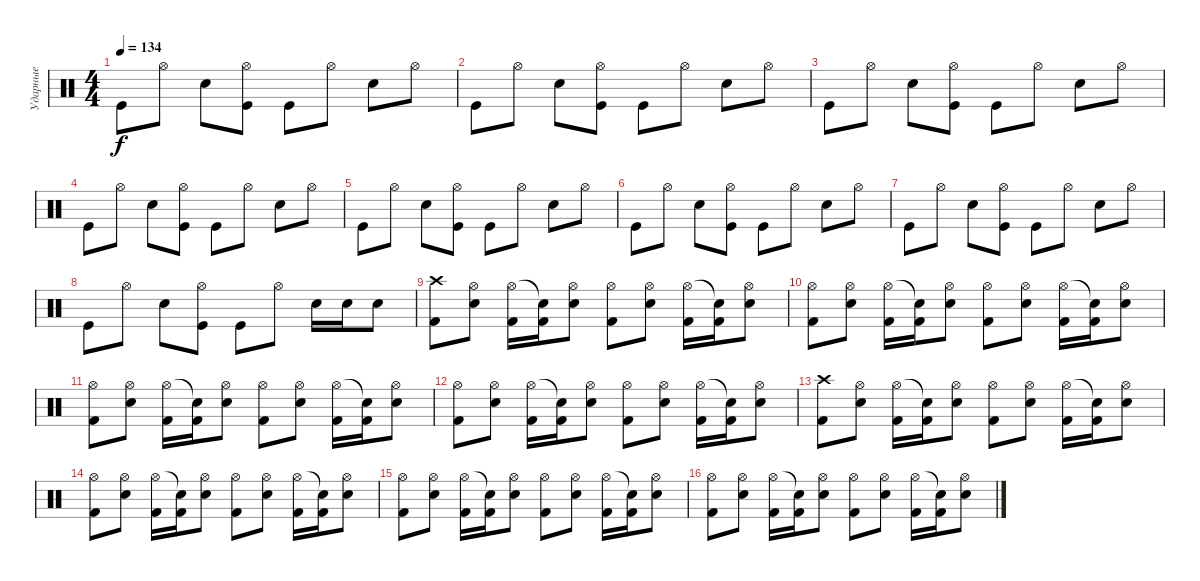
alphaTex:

\track ("Ударные" "Ударные") {instrument percussion}
\staff {score}
\articulation defaults
\ts (4 4)
\tempo 134
\clef neutral
\ks c "Kick (hit)".8{dy f} "Hi-Hat (open)".8 "Snare (hit) 2".8
("Hi-Hat (open)" "Kick (hit)").8 "Kick (hit)".8 "Hi-Hat (open)".8 "Snare (hit) 2".8 "Hi-Hat (open)".8 |
"Kick (hit)".8 "Hi-Hat (open)".8 "Snare (hit) 2".8 ("Hi-Hat (open)" "Kick (hit)").8 "Kick (hit)".8 "Hi-Hat (open)".8 "Snare (hit) 2".8 "Hi-Hat (open)".8 |
"Kick (hit)".8 "Hi-Hat (open)".8 "Snare (hit) 2".8 ("Hi-Hat (open)" "Kick (hit)").8 "Kick (hit)".8 "Hi-Hat (open)".8 "Snare (hit) 2".8 "Hi-Hat (open)".8 |
"Kick (hit)".8 "Hi-Hat (open)".8 "Snare (hit) 2".8 ("Hi-Hat (open)" "Kick (hit)").8 "Kick (hit)".8 "Hi-Hat (open)".8 "Snare (hit) 2".8 "Hi-Hat (open)".8 |
"Kick (hit)".8 "Hi-Hat (open)".8 "Snare (hit) 2".8 ("Hi-Hat (open)" "Kick (hit)").8 "Kick (hit)".8 "Hi-Hat (open)".8 "Snare (hit) 2".8 "Hi-Hat (open)".8 |
"Kick (hit)".8 "Hi-Hat (open)".8 "Snare (hit) 2".8 ("Hi-Hat (open)" "Kick (hit)").8 "Kick (hit)".8 "Hi-Hat (open)".8 "Snare (hit) 2".8 "Hi-Hat (open)".8 |
"Kick (hit)".8 "Hi-Hat (open)".8 "Snare (hit) 2".8 ("Hi-Hat (open)" "Kick (hit)").8 "Kick (hit)".8 "Hi-Hat (open)".8 "Snare (hit) 2".8 "Hi-Hat (open)".8 |
"Kick (hit)".8 "Hi-Hat (open)".8 "Snare (hit) 2".8 ("Hi-Hat (open)" "Kick (hit)").8 "Kick (hit)".8 "Hi-Hat (open)".8 "Snare (hit) 2".16 "Snare (hit) 2".16 "Snare (hit) 2".8 |
("Crash high (hit)" "Kick (hit) 2").8 ("Hi-Hat (open)" "Snare (hit) 2").8 ("Hi-Hat (open)" "Kick (hit) 2").16 ("Snare (hit)"{t} "Kick (hit) 2").16 ("Hi-Hat (open)" "Snare (hit) 2").8 ("Hi-Hat (open)" "Kick (hit) 2").8 ("Hi-Hat (open)" "Snare (hit) 2").8 ("Hi-Hat (open)" "Kick (hit) 2").16 ("Snare (hit)"{t} "Kick (hit) 2").16 ("Hi-Hat (open)" "Snare (hit) 2").8 |
("Hi-Hat (open)" "Kick (hit) 2").8 ("Hi-Hat (open)" "Snare (hit) 2").8 ("Hi-Hat (open)" "Kick (hit) 2").16 ("Snare (hit)"{t} "Kick (hit) 2").16 ("Hi-Hat (open)" "Snare (hit) 2").8 ("Hi-Hat (open)" "Kick (hit) 2").8 ("Hi-Hat (open)" "Snare (hit) 2").8 ("Hi-Hat (open)" "Kick (hit) 2").16 ("Snare (hit)"{t} "Kick (hit) 2").16 ("Hi-Hat (open)" "Snare (hit) 2").8 |
("Hi-Hat (open)" "Kick (hit) 2").8 ("Hi-Hat (open)" "Snare (hit) 2").8 ("Hi-Hat (open)" "Kick (hit) 2").16 ("Snare (hit)"{t} "Kick (hit) 2").16 ("Hi-Hat (open)" "Snare (hit) 2").8 ("Hi-Hat (open)" "Kick (hit) 2").8 ("Hi-Hat (open)" "Snare (hit) 2").8 ("Hi-Hat (open)" "Kick (hit) 2").16 ("Snare (hit)"{t} "Kick (hit) 2").16 ("Hi-Hat (open)" "Snare (hit) 2").8 |
("Hi-Hat (open)" "Kick (hit) 2").8 ("Hi-Hat (open)" "Snare (hit) 2").8 ("Hi-Hat (open)" "Kick (hit) 2").16 ("Snare (hit)"{t} "Kick (hit) 2").16 ("Hi-Hat (open)" "Snare (hit) 2").8 ("Hi-Hat (open)" "Kick (hit) 2").8 ("Hi-Hat (open)" "Snare (hit) 2").8 ("Hi-Hat (open)" "Kick (hit) 2").16 ("Snare (hit)"{t} "Kick (hit) 2").16 ("Hi-Hat (open)" "Snare (hit) 2").8 |
("Crash high (hit)" "Kick (hit) 2").8 ("Hi-Hat (open)" "Snare (hit) 2").8 ("Hi-Hat (open)" "Kick (hit) 2").16 ("Snare (hit)"{t} "Kick (hit) 2").16 ("Hi-Hat (open)" "Snare (hit) 2").8 ("Hi-Hat (open)" "Kick (hit) 2").8 ("Hi-Hat (open)" "Snare (hit) 2").8 ("Hi-Hat (open)" "Kick (hit) 2").16 ("Snare (hit)"{t} "Kick (hit) 2").16 ("Hi-Hat (open)" "Snare (hit) 2").8 |
("Hi-Hat (open)" "Kick (hit) 2").8 ("Hi-Hat (open)" "Snare (hit) 2").8 ("Hi-Hat (open)" "Kick (hit) 2").16 ("Snare (hit)"{t} "Kick (hit) 2").16 ("Hi-Hat (open)" "Snare (hit) 2").8 ("Hi-Hat (open)" "Kick (hit) 2").8 ("Hi-Hat (open)" "Snare (hit) 2").8 ("Hi-Hat (open)" "Kick (hit) 2").16 ("Snare (hit)"{t} "Kick (hit) 2").16 ("Hi-Hat (open)" "Snare (hit) 2").8 |
("Hi-Hat (open)" "Kick (hit) 2").8 ("Hi-Hat (open)" "Snare (hit) 2").8 ("Hi-Hat (open)" "Kick (hit) 2").16 ("Snare (hit)"{t} "Kick (hit) 2").16 ("Hi-Hat (open)" "Snare (hit) 2").8 ("Hi-Hat (open)" "Kick (hit) 2").8 ("Hi-Hat (open)" "Snare (hit) 2").8 ("Hi-Hat (open)" "Kick (hit) 2").16 ("Snare (hit)"{t} "Kick (hit) 2").16 ("Hi-Hat (open)" "Snare (hit) 2").8 |
("Hi-Hat (open)" "Kick (hit) 2").8 ("Hi-Hat (open)" "Snare (hit) 2").8 ("Hi-Hat (open)" "Kick (hit) 2").16 ("Snare (hit)"{t} "Kick (hit) 2").16 ("Hi-Hat (open)" "Snare (hit) 2").8 ("Hi-Hat (open)" "Kick (hit) 2").8 ("Hi-Hat (open)" "Snare (hit) 2").8 ("Hi-Hat (open)" "Kick (hit) 2").16 ("Snare (hit)"{t} "Kick (hit) 2").16 ("Hi-Hat (open)" "Snare (hit) 2").8
